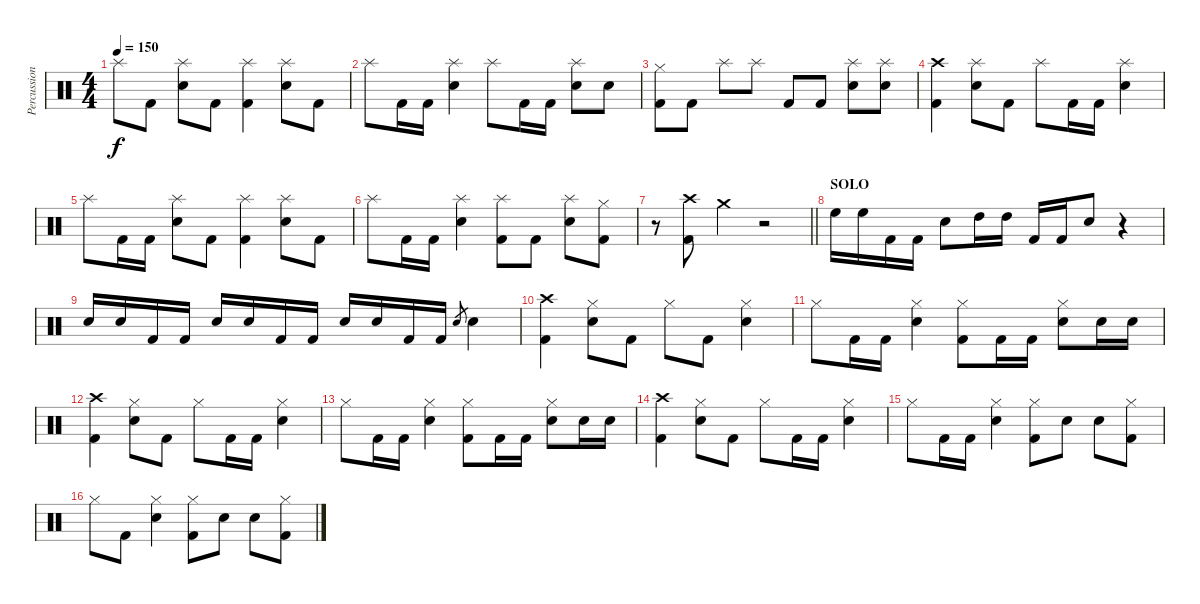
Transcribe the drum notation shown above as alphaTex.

\track ("Percussion" "Percussion") {instrument percussion}
\staff {score}
\articulation defaults
\ts (4 4)
\tempo 150
\clef neutral
\ks c "Splash (hit)".8{dy f} "Kick (hit) 2".8
("Electric Snare (hit)" "Splash (hit)").8 "Kick (hit) 2".8 ("Kick (hit) 2" "Splash (hit)").4 ("Electric Snare (hit)" "Splash (hit)").8 "Kick (hit) 2".8 |
"Splash (hit)".8 "Kick (hit) 2".16 "Kick (hit) 2".16 ("Electric Snare (hit)" "Splash (hit)").4 "Splash (hit)".8 "Kick (hit) 2".16 "Kick (hit) 2".16 ("Electric Snare (hit)" "Splash (hit)").8 "Electric Snare (hit)".8 |
("Kick (hit) 2" "Hi-Hat (closed)").8 "Kick (hit) 2".8 "Splash (hit)".8 "Splash (hit)".8 "Kick (hit) 2".8 "Kick (hit) 2".8 ("Electric Snare (hit)" "Splash (hit)").8 ("Electric Snare (hit)" "Splash (hit)").8 |
("Kick (hit) 2" "Crash high (hit)").4 ("Electric Snare (hit)" "Splash (hit)").8 "Kick (hit) 2".8 "Splash (hit)".8 "Kick (hit) 2".16 "Kick (hit) 2".16 ("Electric Snare (hit)" "Splash (hit)").4 |
"Splash (hit)".8 "Kick (hit) 2".16 "Kick (hit) 2".16 ("Electric Snare (hit)" "Splash (hit)").8 "Kick (hit) 2".8 ("Kick (hit) 2" "Splash (hit)").4 ("Snare (hit)" "Splash (hit)").8 "Kick (hit) 2".8 |
"Splash (hit)".8 "Kick (hit) 2".16 "Kick (hit) 2".16 ("Electric Snare (hit)" "Splash (hit)").4 ("Kick (hit) 2" "Splash (hit)").8 "Kick (hit) 2".8 ("Electric Snare (hit)" "Splash (hit)").8 ("Kick (hit) 2" "Hi-Hat (closed)").8 |
\barLineRight lightlight
r.8 ("Kick (hit) 2" "Crash high (hit)").8 "Crash medium (hit)".4 r.2 |
\section ("" "SOLO")
"High Floor Tom (hit)".16 "High Floor Tom (hit)".16 "Kick (hit) 2".16 "Kick (hit) 2".16 "Electric Snare (hit)".8 "High Tom (hit)".16 "High Tom (hit)".16 "Kick (hit) 2".16 "Kick (hit) 2".16 "Electric Snare (hit)".8 r.4 |
"Electric Snare (hit)".16 "Electric Snare (hit)".16 "Kick (hit) 2".16 "Kick (hit) 2".16 "Electric Snare (hit)".16 "Electric Snare (hit)".16 "Kick (hit) 2".16 "Kick (hit) 2".16 "Electric Snare (hit)".16 "Electric Snare (hit)".16 "Kick (hit) 2".16 "Kick (hit) 2".16 "Electric Snare (hit)".8{gr} "Electric Snare (hit)".4 |
("Kick (hit) 2" "Crash high (hit)").4 ("Electric Snare (hit)" "Hi-Hat (closed)").8 "Kick (hit) 2".8 "Hi-Hat (closed)".8 "Kick (hit) 2".8 ("Electric Snare (hit)" "Hi-Hat (closed)").4 |
"Hi-Hat (closed)".8 "Kick (hit) 2".16 "Kick (hit) 2".16 ("Electric Snare (hit)" "Hi-Hat (closed)").4 ("Kick (hit) 2" "Hi-Hat (closed)").8 "Kick (hit) 2".16 "Kick (hit) 2".16 ("Electric Snare (hit)" "Hi-Hat (closed)").8 "Electric Snare (hit)".16 "Electric Snare (hit)".16 |
("Kick (hit) 2" "Crash high (hit)").4 ("Electric Snare (hit)" "Hi-Hat (closed)").8 "Kick (hit) 2".8 "Hi-Hat (closed)".8 "Kick (hit) 2".16 "Kick (hit) 2".16 ("Electric Snare (hit)" "Hi-Hat (closed)").4 |
"Hi-Hat (closed)".8 "Kick (hit) 2".16 "Kick (hit) 2".16 ("Electric Snare (hit)" "Hi-Hat (closed)").4 ("Kick (hit) 2" "Hi-Hat (closed)").8 "Kick (hit) 2".16 "Kick (hit) 2".16 ("Electric Snare (hit)" "Hi-Hat (closed)").8 "Electric Snare (hit)".16 "Electric Snare (hit)".16 |
("Kick (hit) 2" "Crash high (hit)").4 ("Electric Snare (hit)" "Hi-Hat (closed)").8 "Kick (hit) 2".8 "Hi-Hat (closed)".8 "Kick (hit) 2".16 "Kick (hit) 2".16 ("Electric Snare (hit)" "Hi-Hat (closed)").4 |
"Hi-Hat (closed)".8 "Kick (hit) 2".16 "Kick (hit) 2".16 ("Electric Snare (hit)" "Hi-Hat (closed)").4 ("Kick (hit) 2" "Hi-Hat (closed)").8 "Electric Snare (hit)".8 "Electric Snare (hit)".8 ("Kick (hit) 2" "Hi-Hat (closed)").8 |
"Hi-Hat (closed)".8 "Kick (hit) 2".8 ("Electric Snare (hit)" "Hi-Hat (closed)").4 ("Kick (hit) 2" "Hi-Hat (closed)").8 "Electric Snare (hit)".8 "Electric Snare (hit)".8 ("Kick (hit) 2" "Hi-Hat (closed)").8
